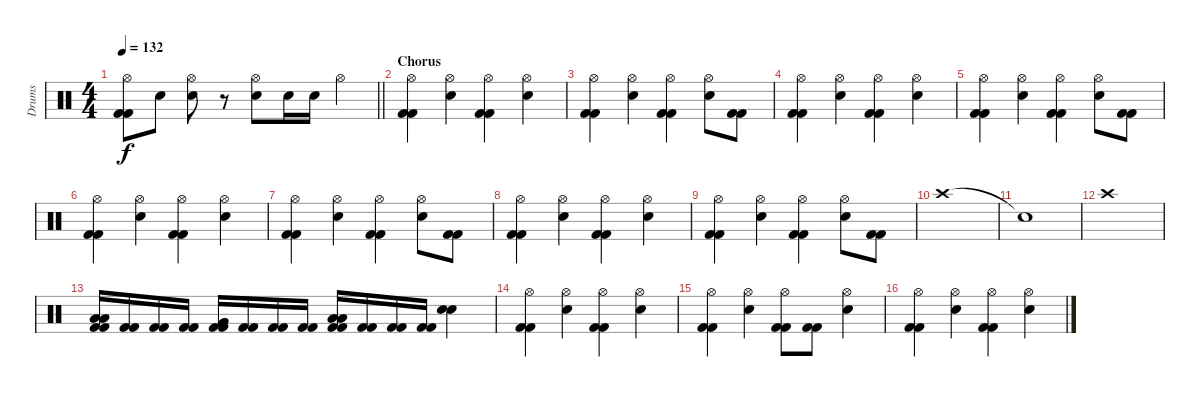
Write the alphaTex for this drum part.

\track ("Drums" "Drums") {instrument percussion}
\staff {score}
\articulation defaults
\ts (4 4)
\tempo 132
\clef neutral
\barLineRight lightlight
\ks c
("Hi-Hat (open)" "Kick (hit) 2" "Kick (hit) 2").8{dy f} "Snare (hit) 2".8 ("Hi-Hat (open)" "Snare (hit) 2").8 r.8 ("Hi-Hat (open)" "Snare (hit) 2").8 "Snare (hit) 2".16 "Snare (hit) 2".16 "Hi-Hat (open)".4 |
\section ("" "Chorus")
("Hi-Hat (open)" "Kick (hit) 2" "Kick (hit) 2").4 ("Hi-Hat (open)" "Snare (hit) 2").4 ("Hi-Hat (open)" "Kick (hit) 2" "Kick (hit) 2").4 ("Hi-Hat (open)" "Snare (hit) 2").4 |
("Hi-Hat (open)" "Kick (hit) 2" "Kick (hit) 2").4 ("Hi-Hat (open)" "Snare (hit) 2").4 ("Hi-Hat (open)" "Kick (hit) 2" "Kick (hit) 2").4 ("Hi-Hat (open)" "Snare (hit) 2").8 ("Kick (hit) 2" "Kick (hit) 2").8 |
("Hi-Hat (open)" "Kick (hit) 2" "Kick (hit) 2").4 ("Hi-Hat (open)" "Snare (hit) 2").4 ("Hi-Hat (open)" "Kick (hit) 2" "Kick (hit) 2").4 ("Hi-Hat (open)" "Snare (hit) 2").4 |
("Hi-Hat (open)" "Kick (hit) 2" "Kick (hit) 2").4 ("Hi-Hat (open)" "Snare (hit) 2").4 ("Hi-Hat (open)" "Kick (hit) 2" "Kick (hit) 2").4 ("Hi-Hat (open)" "Snare (hit) 2").8 ("Kick (hit) 2" "Kick (hit) 2").8 |
("Hi-Hat (open)" "Kick (hit) 2" "Kick (hit) 2").4 ("Hi-Hat (open)" "Snare (hit) 2").4 ("Hi-Hat (open)" "Kick (hit) 2" "Kick (hit) 2").4 ("Hi-Hat (open)" "Snare (hit) 2").4 |
("Hi-Hat (open)" "Kick (hit) 2" "Kick (hit) 2").4 ("Hi-Hat (open)" "Snare (hit) 2").4 ("Hi-Hat (open)" "Kick (hit) 2" "Kick (hit) 2").4 ("Hi-Hat (open)" "Snare (hit) 2").8 ("Kick (hit) 2" "Kick (hit) 2").8 |
("Hi-Hat (open)" "Kick (hit) 2" "Kick (hit) 2").4 ("Hi-Hat (open)" "Snare (hit) 2").4 ("Hi-Hat (open)" "Kick (hit) 2" "Kick (hit) 2").4 ("Hi-Hat (open)" "Snare (hit) 2").4 |
("Hi-Hat (open)" "Kick (hit) 2" "Kick (hit) 2").4 ("Hi-Hat (open)" "Snare (hit) 2").4 ("Hi-Hat (open)" "Kick (hit) 2" "Kick (hit) 2").4 ("Hi-Hat (open)" "Snare (hit) 2").8 ("Kick (hit) 2" "Kick (hit) 2").8 |
"Crash high (hit)".1 |
"Snare (hit)"{t}.1 |
"Crash high (hit)".1 |
("Low Tom (hit)" "Low Tom (hit)" "Kick (hit) 2" "Kick (hit) 2").16 ("Kick (hit) 2" "Kick (hit) 2").16 ("Kick (hit) 2" "Kick (hit) 2").16 ("Kick (hit) 2" "Kick (hit) 2").16 ("Very Low Tom (hit)" "Very Low Tom (hit)" "Kick (hit) 2" "Kick (hit) 2").16 ("Kick (hit) 2" "Kick (hit) 2").16 ("Kick (hit) 2" "Kick (hit) 2").16 ("Kick (hit) 2" "Kick (hit) 2").16 ("Low Floor Tom (hit)" "Low Floor Tom (hit)" "Kick (hit) 2" "Kick (hit) 2").16 ("Kick (hit) 2" "Kick (hit) 2").16 ("Kick (hit) 2" "Kick (hit) 2").16 ("Kick (hit) 2" "Kick (hit) 2").16 ("Snare (hit) 2" "Snare (hit) 2").4 |
("Hi-Hat (open)" "Kick (hit) 2" "Kick (hit) 2").4 ("Hi-Hat (open)" "Snare (hit) 2").4 ("Hi-Hat (open)" "Kick (hit) 2" "Kick (hit) 2").4 ("Hi-Hat (open)" "Snare (hit) 2").4 |
("Hi-Hat (open)" "Kick (hit) 2" "Kick (hit) 2").4 ("Hi-Hat (open)" "Snare (hit) 2").4 ("Hi-Hat (open)" "Kick (hit) 2" "Kick (hit) 2").8 ("Kick (hit) 2" "Kick (hit) 2").8 ("Hi-Hat (open)" "Snare (hit) 2").4 |
("Hi-Hat (open)" "Kick (hit) 2" "Kick (hit) 2").4 ("Hi-Hat (open)" "Snare (hit) 2").4 ("Hi-Hat (open)" "Kick (hit) 2" "Kick (hit) 2").4 ("Hi-Hat (open)" "Snare (hit) 2").4
